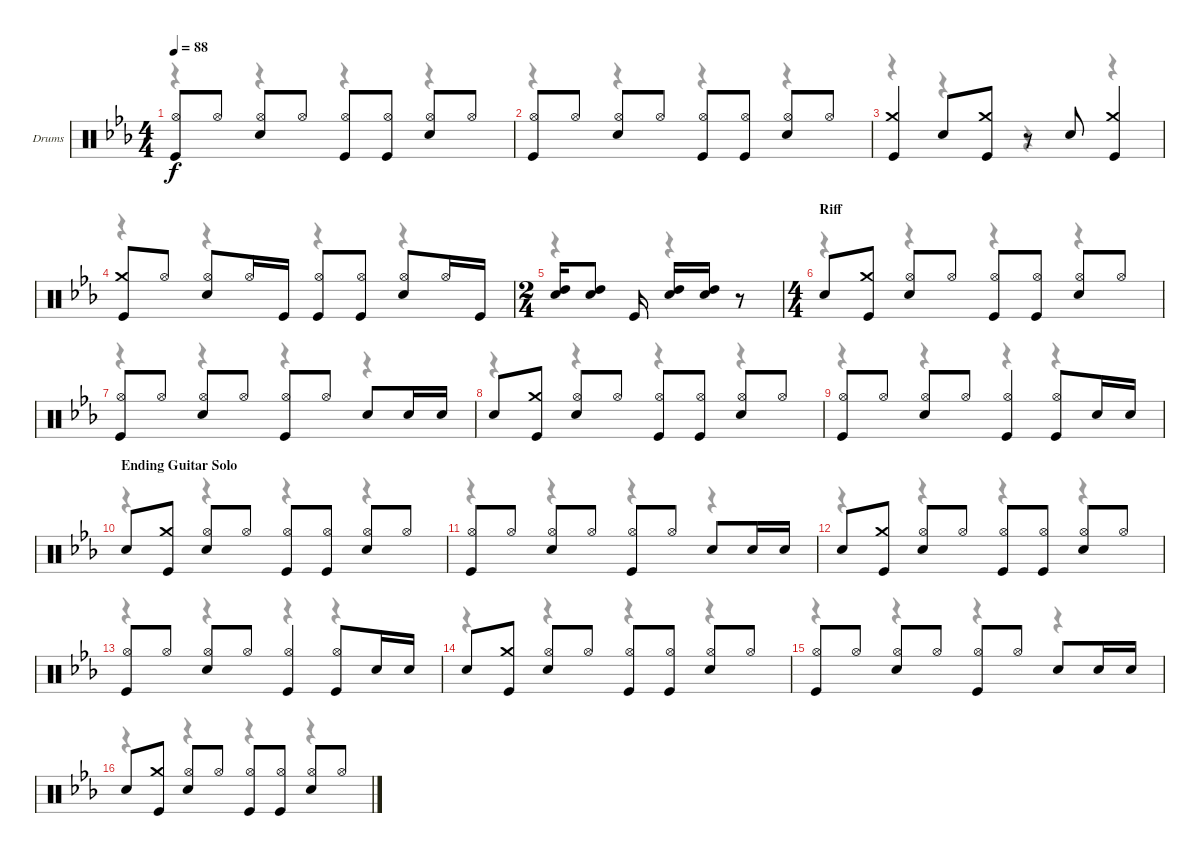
\bracketExtendMode groupsimilarinstruments
\firstSystemTrackNameOrientation horizontal
\otherSystemsTrackNameOrientation horizontal
\track ("Ian Paice - Drums" "Drums") {instrument percussion}
\staff {score}
\articulation defaults
\voice
\ts (4 4)
\tempo 88
\clef neutral
\ks cminor
("Hi-Hat (open)" "Kick (hit)").8{dy f} "Hi-Hat (open)".8 ("Hi-Hat (open)" "Snare (hit) 2").8 "Hi-Hat (open)".8 ("Hi-Hat (open)" "Kick (hit)").8 ("Hi-Hat (open)" "Kick (hit)").8 ("Hi-Hat (open)" "Snare (hit) 2").8 "Hi-Hat (open)".8 |
("Hi-Hat (open)" "Kick (hit)").8 "Hi-Hat (open)".8 ("Hi-Hat (open)" "Snare (hit) 2").8 "Hi-Hat (open)".8 ("Hi-Hat (open)" "Kick (hit)").8 ("Hi-Hat (open)" "Kick (hit)").8 ("Hi-Hat (open)" "Snare (hit) 2").8 "Hi-Hat (open)".8 |
("Crash medium (hit)" "Kick (hit)").4 "Snare (hit) 2".8 ("Crash medium (hit)" "Kick (hit)").8 r.8 "Snare (hit) 2".8 ("Crash medium (hit)" "Kick (hit)").4 |
("Crash medium (hit)" "Kick (hit)").8 "Hi-Hat (open)".8 ("Hi-Hat (open)" "Snare (hit) 2").8 "Hi-Hat (open)".16 "Kick (hit)".16 ("Hi-Hat (open)" "Kick (hit)").8 ("Hi-Hat (open)" "Kick (hit)").8 ("Hi-Hat (open)" "Snare (hit) 2").8 "Hi-Hat (open)".16 "Kick (hit)".16 |
\ts (2 4)
\beaming (8 1 1 1 1)
("Snare (hit) 2" "High Tom (hit)").16 ("Snare (hit) 2" "High Tom (hit)").8 "Kick (hit)".16 ("Snare (hit) 2" "High Tom (hit)").16 ("Snare (hit) 2" "High Tom (hit)").16 r.8 |
\ts (4 4)
\beaming (8 2 2 2 2)
\section ("" "Riff")
"Snare (hit) 2".8 ("Crash medium (hit)" "Kick (hit)").8 ("Hi-Hat (open)" "Snare (hit) 2").8 "Hi-Hat (open)".8 ("Hi-Hat (open)" "Kick (hit)").8 ("Hi-Hat (open)" "Kick (hit)").8 ("Hi-Hat (open)" "Snare (hit) 2").8 "Hi-Hat (open)".8 |
("Hi-Hat (open)" "Kick (hit)").8 "Hi-Hat (open)".8 ("Hi-Hat (open)" "Snare (hit) 2").8 "Hi-Hat (open)".8 ("Hi-Hat (open)" "Kick (hit)").8 "Hi-Hat (open)".8 "Snare (hit) 2".8 "Snare (hit) 2".16 "Snare (hit) 2".16 |
"Snare (hit) 2".8 ("Crash medium (hit)" "Kick (hit)").8 ("Hi-Hat (open)" "Snare (hit) 2").8 "Hi-Hat (open)".8 ("Hi-Hat (open)" "Kick (hit)").8 ("Hi-Hat (open)" "Kick (hit)").8 ("Hi-Hat (open)" "Snare (hit) 2").8 "Hi-Hat (open)".8 |
("Hi-Hat (open)" "Kick (hit)").8 "Hi-Hat (open)".8 ("Hi-Hat (open)" "Snare (hit) 2").8 "Hi-Hat (open)".8 ("Hi-Hat (open)" "Kick (hit)").4 ("Hi-Hat (open)" "Kick (hit)").8 "Snare (hit) 2".16 "Snare (hit) 2".16 |
\section ("" "Ending Guitar Solo")
"Snare (hit) 2".8 ("Crash medium (hit)" "Kick (hit)").8 ("Hi-Hat (open)" "Snare (hit) 2").8 "Hi-Hat (open)".8 ("Hi-Hat (open)" "Kick (hit)").8 ("Hi-Hat (open)" "Kick (hit)").8 ("Hi-Hat (open)" "Snare (hit) 2").8 "Hi-Hat (open)".8 |
("Hi-Hat (open)" "Kick (hit)").8 "Hi-Hat (open)".8 ("Hi-Hat (open)" "Snare (hit) 2").8 "Hi-Hat (open)".8 ("Hi-Hat (open)" "Kick (hit)").8 "Hi-Hat (open)".8 "Snare (hit) 2".8 "Snare (hit) 2".16 "Snare (hit) 2".16 |
"Snare (hit) 2".8 ("Crash medium (hit)" "Kick (hit)").8 ("Hi-Hat (open)" "Snare (hit) 2").8 "Hi-Hat (open)".8 ("Hi-Hat (open)" "Kick (hit)").8 ("Hi-Hat (open)" "Kick (hit)").8 ("Hi-Hat (open)" "Snare (hit) 2").8 "Hi-Hat (open)".8 |
("Hi-Hat (open)" "Kick (hit)").8 "Hi-Hat (open)".8 ("Hi-Hat (open)" "Snare (hit) 2").8 "Hi-Hat (open)".8 ("Hi-Hat (open)" "Kick (hit)").4 ("Hi-Hat (open)" "Kick (hit)").8 "Snare (hit) 2".16 "Snare (hit) 2".16 |
"Snare (hit) 2".8 ("Crash medium (hit)" "Kick (hit)").8 ("Hi-Hat (open)" "Snare (hit) 2").8 "Hi-Hat (open)".8 ("Hi-Hat (open)" "Kick (hit)").8 ("Hi-Hat (open)" "Kick (hit)").8 ("Hi-Hat (open)" "Snare (hit) 2").8 "Hi-Hat (open)".8 |
("Hi-Hat (open)" "Kick (hit)").8 "Hi-Hat (open)".8 ("Hi-Hat (open)" "Snare (hit) 2").8 "Hi-Hat (open)".8 ("Hi-Hat (open)" "Kick (hit)").8 "Hi-Hat (open)".8 "Snare (hit) 2".8 "Snare (hit) 2".16 "Snare (hit) 2".16 |
"Snare (hit) 2".8 ("Crash medium (hit)" "Kick (hit)").8 ("Hi-Hat (open)" "Snare (hit) 2").8 "Hi-Hat (open)".8 ("Hi-Hat (open)" "Kick (hit)").8 ("Hi-Hat (open)" "Kick (hit)").8 ("Hi-Hat (open)" "Snare (hit) 2").8 "Hi-Hat (open)".8
\voice
\clef neutral
\ottava regular
\simile none
\ks cminor
r.4{dy mf} r.4 r.4 r.4 |
r.4 r.4 r.4 r.4 |
r.4 r.4 r.4 r.4 |
r.4 r.4 r.4 r.4 |
r.4 r.4 |
r.4 r.4 r.4 r.4 |
r.4 r.4 r.4 r.4 |
r.4 r.4 r.4 r.4 |
r.4 r.4 r.4 r.4 |
r.4 r.4 r.4 r.4 |
r.4 r.4 r.4 r.4 |
r.4 r.4 r.4 r.4 |
r.4 r.4 r.4 r.4 |
r.4 r.4 r.4 r.4 |
r.4 r.4 r.4 r.4 |
r.4 r.4 r.4 r.4
